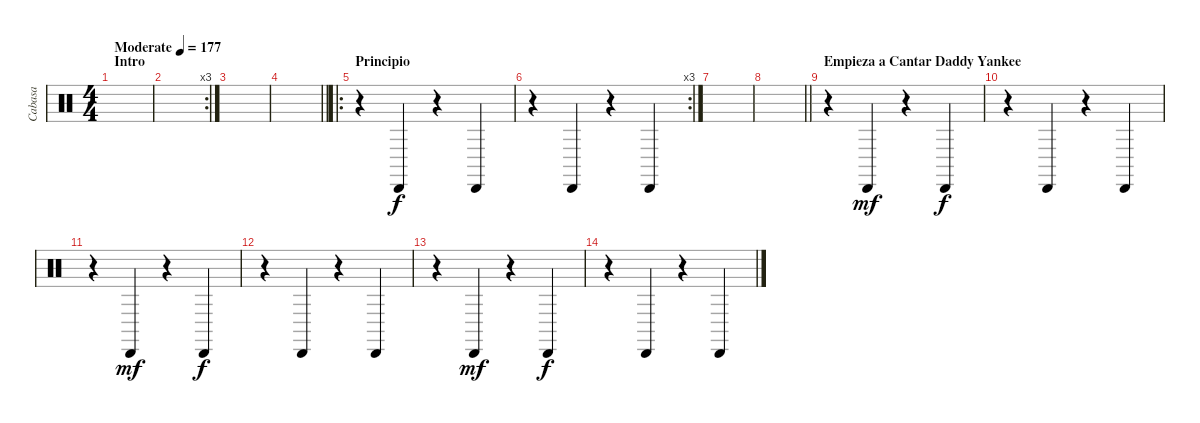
\track ("Cabasa" "Cabasa") {instrument percussion}
\staff {score}
\articulation defaults
\ts (4 4)
\section ("" "Intro")
\tempo (177 "Moderate")
\clef neutral
\ks c
|
\rc 3
|
|
\barLineRight lightlight
|
\ro
\section ("" "Principio")
r.4 "Cabasa (hit)".4 r.4 "Cabasa (hit)".4{dy f} |
\rc 3
r.4 "Cabasa (hit)".4 r.4 "Cabasa (hit)".4 |
|
\barLineRight lightlight
|
\section ("" "Empieza a Cantar Daddy Yankee")
r.4 "Cabasa (hit)".4{dy mf} r.4 "Cabasa (hit)".4{dy f} |
r.4 "Cabasa (hit)".4 r.4 "Cabasa (hit)".4 |
r.4 "Cabasa (hit)".4{dy mf} r.4 "Cabasa (hit)".4{dy f} |
r.4 "Cabasa (hit)".4 r.4 "Cabasa (hit)".4 |
r.4 "Cabasa (hit)".4{dy mf} r.4 "Cabasa (hit)".4{dy f} |
r.4 "Cabasa (hit)".4 r.4 "Cabasa (hit)".4
